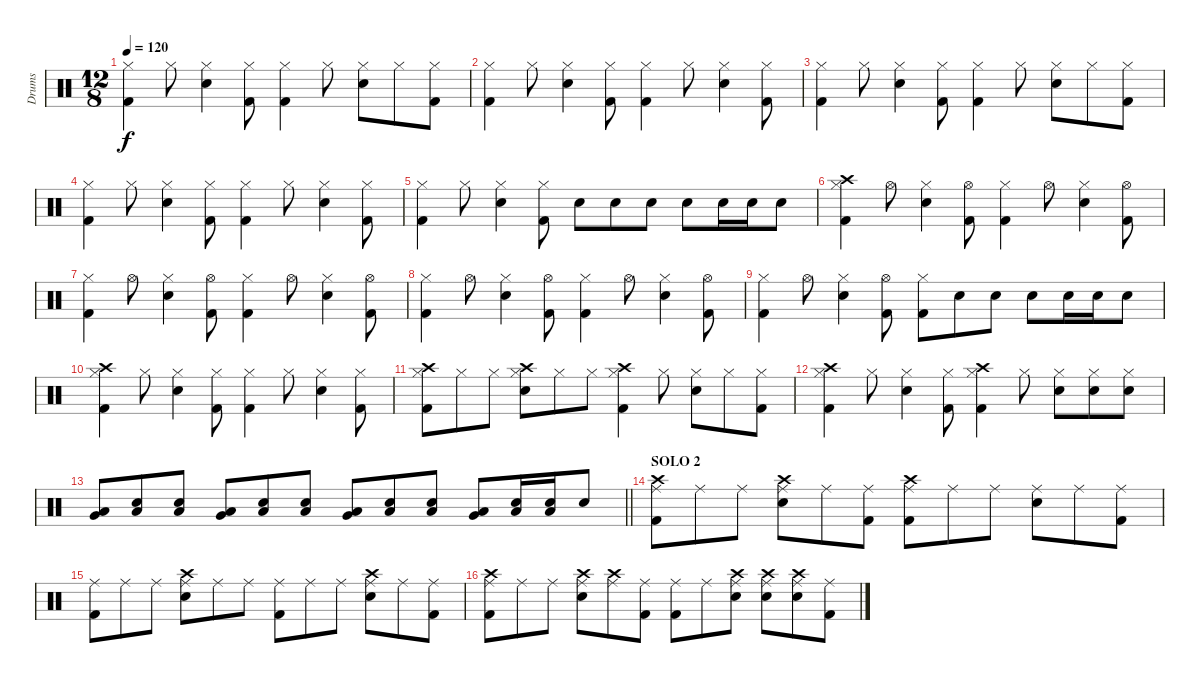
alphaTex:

\track ("Drums" "Drums") {instrument percussion}
\staff {score}
\articulation defaults
\ts (12 8)
\tempo 120
\clef neutral
\ks c
("Hi-Hat (closed)" "Kick (hit) 2").4{dy f} "Hi-Hat (closed)".8 ("Hi-Hat (closed)" "Electric Snare (hit)").4 ("Hi-Hat (closed)" "Kick (hit) 2").8 ("Hi-Hat (closed)" "Kick (hit) 2").4 "Hi-Hat (closed)".8 ("Hi-Hat (closed)" "Electric Snare (hit)").8 "Hi-Hat (closed)".8 ("Hi-Hat (closed)" "Kick (hit) 2").8 |
("Hi-Hat (closed)" "Kick (hit) 2").4 "Hi-Hat (closed)".8 ("Hi-Hat (closed)" "Electric Snare (hit)").4 ("Hi-Hat (closed)" "Kick (hit) 2").8 ("Hi-Hat (closed)" "Kick (hit) 2").4 "Hi-Hat (closed)".8 ("Hi-Hat (closed)" "Electric Snare (hit)").4 ("Hi-Hat (closed)" "Kick (hit) 2").8 |
("Hi-Hat (closed)" "Kick (hit) 2").4 "Hi-Hat (closed)".8 ("Hi-Hat (closed)" "Electric Snare (hit)").4 ("Hi-Hat (closed)" "Kick (hit) 2").8 ("Hi-Hat (closed)" "Kick (hit) 2").4 "Hi-Hat (closed)".8 ("Hi-Hat (closed)" "Electric Snare (hit)").8 "Hi-Hat (closed)".8 ("Hi-Hat (closed)" "Kick (hit) 2").8 |
("Hi-Hat (closed)" "Kick (hit) 2").4 "Hi-Hat (closed)".8 ("Hi-Hat (closed)" "Electric Snare (hit)").4 ("Hi-Hat (closed)" "Kick (hit) 2").8 ("Hi-Hat (closed)" "Kick (hit) 2").4 "Hi-Hat (closed)".8 ("Hi-Hat (closed)" "Electric Snare (hit)").4 ("Hi-Hat (closed)" "Kick (hit) 2").8 |
("Hi-Hat (closed)" "Kick (hit) 2").4 "Hi-Hat (closed)".8 ("Hi-Hat (closed)" "Electric Snare (hit)").4 ("Hi-Hat (closed)" "Kick (hit) 2").8 "Electric Snare (hit)".8 "Electric Snare (hit)".8 "Electric Snare (hit)".8 "Electric Snare (hit)".8 "Electric Snare (hit)".16 "Electric Snare (hit)".16 "Electric Snare (hit)".8 |
("Crash high (hit)" "Hi-Hat (closed)" "Kick (hit) 2").4 "Hi-Hat (open)".8 ("Hi-Hat (closed)" "Electric Snare (hit)").4 ("Hi-Hat (open)" "Kick (hit) 2").8 ("Hi-Hat (closed)" "Kick (hit) 2").4 "Hi-Hat (open)".8 ("Hi-Hat (closed)" "Electric Snare (hit)").4 ("Hi-Hat (open)" "Kick (hit) 2").8 |
("Hi-Hat (closed)" "Kick (hit) 2").4 "Hi-Hat (open)".8 ("Hi-Hat (closed)" "Electric Snare (hit)").4 ("Hi-Hat (open)" "Kick (hit) 2").8 ("Hi-Hat (closed)" "Kick (hit) 2").4 "Hi-Hat (open)".8 ("Hi-Hat (closed)" "Electric Snare (hit)").4 ("Hi-Hat (open)" "Kick (hit) 2").8 |
("Hi-Hat (closed)" "Kick (hit) 2").4 "Hi-Hat (open)".8 ("Hi-Hat (closed)" "Electric Snare (hit)").4 ("Hi-Hat (open)" "Kick (hit) 2").8 ("Hi-Hat (closed)" "Kick (hit) 2").4 "Hi-Hat (open)".8 ("Hi-Hat (closed)" "Electric Snare (hit)").4 ("Hi-Hat (open)" "Kick (hit) 2").8 |
("Hi-Hat (closed)" "Kick (hit) 2").4 "Hi-Hat (open)".8 ("Hi-Hat (closed)" "Electric Snare (hit)").4 ("Hi-Hat (open)" "Kick (hit) 2").8 ("Hi-Hat (closed)" "Kick (hit) 2").8 "Electric Snare (hit)".8 "Electric Snare (hit)".8 "Electric Snare (hit)".8 "Electric Snare (hit)".16 "Electric Snare (hit)".16 "Electric Snare (hit)".8 |
("Crash high (hit)" "Hi-Hat (closed)" "Kick (hit) 2").4 "Hi-Hat (closed)".8 ("Hi-Hat (closed)" "Electric Snare (hit)").4 ("Hi-Hat (closed)" "Kick (hit) 2").8 ("Hi-Hat (closed)" "Kick (hit) 2").4 "Hi-Hat (closed)".8 ("Hi-Hat (closed)" "Electric Snare (hit)").4 ("Hi-Hat (closed)" "Kick (hit) 2").8 |
("Crash high (hit)" "Hi-Hat (closed)" "Kick (hit) 2").8 "Hi-Hat (closed)".8 "Hi-Hat (closed)".8 ("Crash high (hit)" "Hi-Hat (closed)" "Electric Snare (hit)").8 "Hi-Hat (closed)".8 "Hi-Hat (closed)".8 ("Crash high (hit)" "Hi-Hat (closed)" "Kick (hit) 2").4 "Hi-Hat (closed)".8 ("Hi-Hat (closed)" "Electric Snare (hit)").8 "Hi-Hat (closed)".8 ("Hi-Hat (closed)" "Kick (hit) 2").8 |
("Crash high (hit)" "Hi-Hat (closed)" "Kick (hit) 2").4 "Hi-Hat (closed)".8 ("Hi-Hat (closed)" "Electric Snare (hit)").4 ("Hi-Hat (closed)" "Kick (hit) 2").8 ("Crash high (hit)" "Hi-Hat (closed)" "Kick (hit) 2").4 "Hi-Hat (closed)".8 ("Hi-Hat (closed)" "Electric Snare (hit)").8 ("Hi-Hat (closed)" "Electric Snare (hit)").8 ("Hi-Hat (closed)" "Electric Snare (hit)").8 |
\barLineRight lightlight
("Very Low Tom (hit)" "Low Tom (hit)").8 ("Low Tom (hit)" "Electric Snare (hit)").8 ("Low Tom (hit)" "Electric Snare (hit)").8 ("Very Low Tom (hit)" "Low Tom (hit)").8 ("Low Tom (hit)" "Electric Snare (hit)").8 ("Low Tom (hit)" "Electric Snare (hit)").8 ("Very Low Tom (hit)" "Low Tom (hit)").8 ("Low Tom (hit)" "Electric Snare (hit)").8 ("Low Tom (hit)" "Electric Snare (hit)").8 ("Very Low Tom (hit)" "Low Tom (hit)").8 ("Low Tom (hit)" "Electric Snare (hit)").16 ("Low Tom (hit)" "Electric Snare (hit)").16 "Electric Snare (hit)".8 |
\section ("" "SOLO 2")
("Crash high (hit)" "Ride (middle)" "Kick (hit) 2").8 "Ride (middle)".8 "Ride (middle)".8 ("Crash high (hit)" "Ride (middle)" "Electric Snare (hit)").8 "Ride (middle)".8 ("Ride (middle)" "Kick (hit) 2").8 ("Crash high (hit)" "Ride (middle)" "Kick (hit) 2").8 "Ride (middle)".8 "Ride (middle)".8 ("Ride (middle)" "Electric Snare (hit)").8 "Ride (middle)".8 ("Ride (middle)" "Kick (hit) 2").8 |
("Ride (middle)" "Kick (hit) 2").8 "Ride (middle)".8 "Ride (middle)".8 ("Crash high (hit)" "Ride (middle)" "Electric Snare (hit)").8 "Ride (middle)".8 "Ride (middle)".8 ("Ride (middle)" "Kick (hit) 2").8 "Ride (middle)".8 "Ride (middle)".8 ("Crash high (hit)" "Ride (middle)" "Electric Snare (hit)").8 "Ride (middle)".8 ("Ride (middle)" "Kick (hit) 2").8 |
("Crash high (hit)" "Ride (middle)" "Kick (hit) 2").8 "Ride (middle)".8 "Ride (middle)".8 ("Crash high (hit)" "Ride (middle)" "Electric Snare (hit)").8 ("Crash high (hit)" "Ride (middle)").8 ("Ride (middle)" "Kick (hit) 2").8 ("Ride (middle)" "Kick (hit) 2").8 "Ride (middle)".8 ("Crash high (hit)" "Ride (middle)" "Electric Snare (hit)").8 ("Crash high (hit)" "Ride (middle)" "Electric Snare (hit)").8 ("Crash high (hit)" "Ride (middle)" "Electric Snare (hit)").8 ("Ride (middle)" "Kick (hit) 2").8
